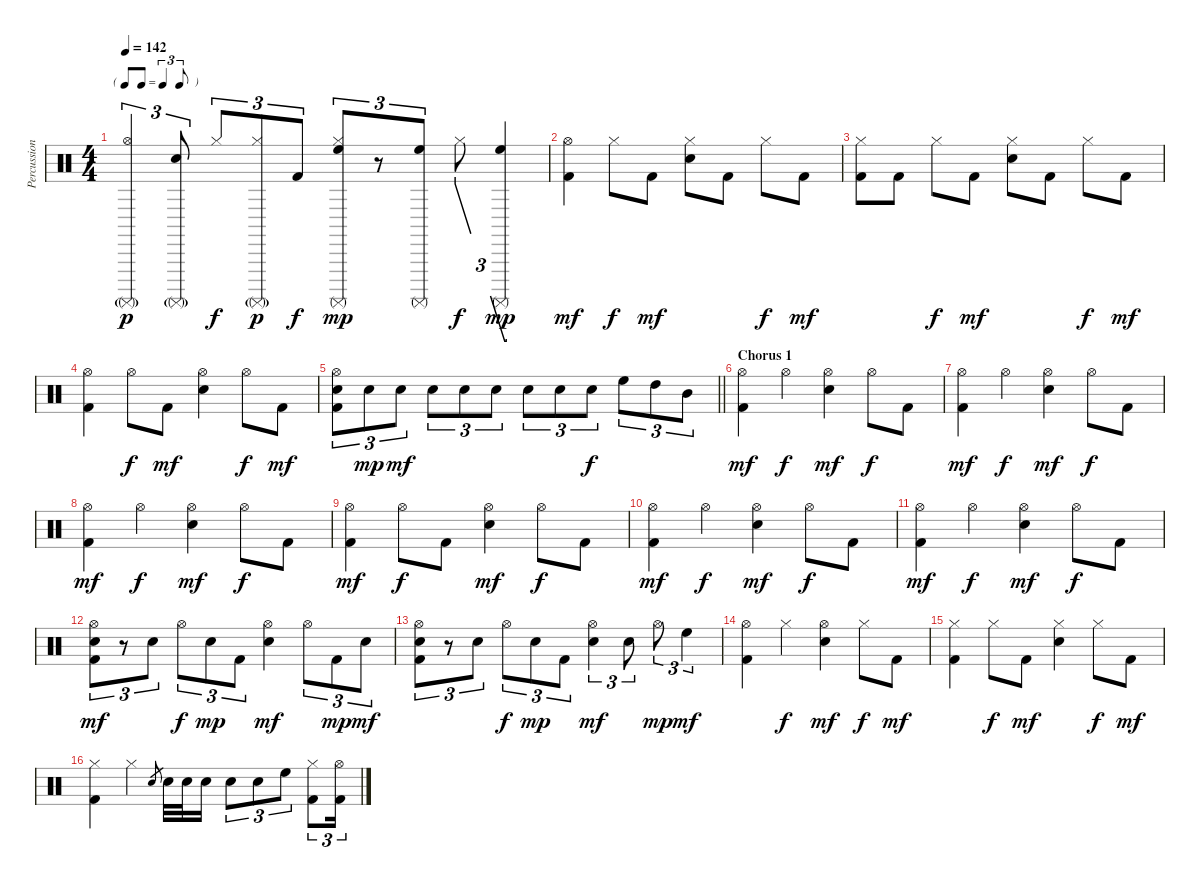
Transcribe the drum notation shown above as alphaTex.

\track ("Percussion" "Percussion") {instrument percussion}
\staff {score}
\articulation defaults
\ts (4 4)
\tf triplet8th
\tempo 142
\clef neutral
\ks c
("Surdo (mute)"{g} "Hi-Hat (open)").4{tu (3 2) dy p} ("Surdo (mute)"{g} "Electric Snare (hit)").8{tu (3 2)} "Hi-Hat (closed)".8{tu (3 2) dy f} ("Surdo (mute)"{g} "Hi-Hat (closed)").8{tu (3 2) dy p} "Kick (hit) 2".8{tu (3 2) dy f} ("Hi-Hat (closed)" "High Floor Tom (hit)" "Surdo (mute)").8{tu (3 2) dy mp} r.8{tu (3 2)} ("High Floor Tom (hit)" "Surdo (mute)").8{tu (3 2)} "Hi-Hat (closed)".8{tu (3 2) dy f} ("High Floor Tom (hit)" "Surdo (mute)").4{tu (3 2) dy mp} |
("Hi-Hat (open)" "Kick (hit) 2").4{dy mf} "Hi-Hat (closed)".8{dy f} "Kick (hit) 2".8{dy mf} ("Hi-Hat (closed)" "Electric Snare (hit)").8 "Kick (hit) 2".8 "Hi-Hat (closed)".8{dy f} "Kick (hit) 2".8{dy mf} |
("Hi-Hat (closed)" "Kick (hit) 2").8 "Kick (hit) 2".8 "Hi-Hat (closed)".8{dy f} "Kick (hit) 2".8{dy mf} ("Hi-Hat (closed)" "Electric Snare (hit)").8 "Kick (hit) 2".8 "Hi-Hat (closed)".8{dy f} "Kick (hit) 2".8{dy mf} |
("Hi-Hat (open)" "Kick (hit) 2").4 "Hi-Hat (open)".8{dy f} "Kick (hit) 2".8{dy mf} ("Hi-Hat (open)" "Electric Snare (hit)").4 "Hi-Hat (open)".8{dy f} "Kick (hit) 2".8{dy mf} |
\barLineRight lightlight
("Hi-Hat (open)" "Electric Snare (hit)" "Kick (hit) 2").8{tu (3 2)} "Electric Snare (hit)".8{tu (3 2) dy mp} "Electric Snare (hit)".8{tu (3 2) dy mf} "Electric Snare (hit)".8{tu (3 2)} "Electric Snare (hit)".8{tu (3 2)} "Electric Snare (hit)".8{tu (3 2)} "Electric Snare (hit)".8{tu (3 2)} "Electric Snare (hit)".8{tu (3 2)} "Electric Snare (hit)".8{tu (3 2) dy f} "High Floor Tom (hit)".8{tu (3 2)} "High Tom (hit)".8{tu (3 2)} "Mid Tom (hit)".8{tu (3 2)} |
\section ("" "Chorus 1")
("Hi-Hat (open)" "Kick (hit) 2").4{dy mf} "Hi-Hat (open)".4{dy f} ("Hi-Hat (open)" "Electric Snare (hit)").4{dy mf} "Hi-Hat (open)".8{dy f} "Kick (hit) 2".8 |
("Hi-Hat (open)" "Kick (hit) 2").4{dy mf} "Hi-Hat (open)".4{dy f} ("Hi-Hat (open)" "Electric Snare (hit)").4{dy mf} "Hi-Hat (open)".8{dy f} "Kick (hit) 2".8 |
("Hi-Hat (open)" "Kick (hit) 2").4{dy mf} "Hi-Hat (open)".4{dy f} ("Hi-Hat (open)" "Electric Snare (hit)").4{dy mf} "Hi-Hat (open)".8{dy f} "Kick (hit) 2".8 |
("Hi-Hat (open)" "Kick (hit) 2").4{dy mf} "Hi-Hat (open)".8{dy f} "Kick (hit) 2".8 ("Hi-Hat (open)" "Electric Snare (hit)").4{dy mf} "Hi-Hat (open)".8{dy f} "Kick (hit) 2".8 |
("Hi-Hat (open)" "Kick (hit) 2").4{dy mf} "Hi-Hat (open)".4{dy f} ("Hi-Hat (open)" "Electric Snare (hit)").4{dy mf} "Hi-Hat (open)".8{dy f} "Kick (hit) 2".8 |
("Hi-Hat (open)" "Kick (hit) 2").4{dy mf} "Hi-Hat (open)".4{dy f} ("Hi-Hat (open)" "Electric Snare (hit)").4{dy mf} "Hi-Hat (open)".8{dy f} "Kick (hit) 2".8 |
("Hi-Hat (open)" "Electric Snare (hit)" "Kick (hit) 2").8{tu (3 2) dy mf} r.8{tu (3 2)} "Electric Snare (hit)".8{tu (3 2)} "Hi-Hat (open)".8{tu (3 2) dy f} "Electric Snare (hit)".8{tu (3 2) dy mp} "Kick (hit) 2".8{tu (3 2)} ("Hi-Hat (open)" "Electric Snare (hit)").4{dy mf} "Hi-Hat (open)".8{tu (3 2)} "Kick (hit) 2".8{tu (3 2) dy mp} "Electric Snare (hit)".8{tu (3 2) dy mf} |
("Hi-Hat (open)" "Electric Snare (hit)" "Kick (hit) 2").8{tu (3 2)} r.8{tu (3 2)} "Electric Snare (hit)".8{tu (3 2)} "Hi-Hat (open)".8{tu (3 2) dy f} "Electric Snare (hit)".8{tu (3 2) dy mp} "Kick (hit) 2".8{tu (3 2)} ("Hi-Hat (open)" "Electric Snare (hit)").4{tu (3 2) dy mf} "Electric Snare (hit)".8{tu (3 2)} "Hi-Hat (open)".8{tu (3 2) dy mp} "High Floor Tom (hit)".4{tu (3 2) dy mf} |
("Hi-Hat (open)" "Kick (hit) 2").4 "Hi-Hat (closed)".4{dy f} ("Hi-Hat (open)" "Electric Snare (hit)").4{dy mf} "Hi-Hat (closed)".8{dy f} "Kick (hit) 2".8{dy mf} |
("Hi-Hat (closed)" "Kick (hit) 2").4 "Hi-Hat (closed)".8{dy f} "Kick (hit) 2".8{dy mf} ("Hi-Hat (closed)" "Electric Snare (hit)").4 "Hi-Hat (closed)".8{dy f} "Kick (hit) 2".8{dy mf} |
("Hi-Hat (closed)" "Kick (hit) 2").4 "Hi-Hat (closed)".4 "Electric Snare (hit)".8{gr} "Electric Snare (hit)".32 "Electric Snare (hit)".32 "Electric Snare (hit)".16 "Electric Snare (hit)".8{tu (3 2)} "Electric Snare (hit)".8{tu (3 2)} "High Floor Tom (hit)".8{tu (3 2)} ("Hi-Hat (closed)" "Kick (hit) 2").8{tu (3 2)} ("Hi-Hat (open)" "Kick (hit) 2").16{tu (3 2)}
